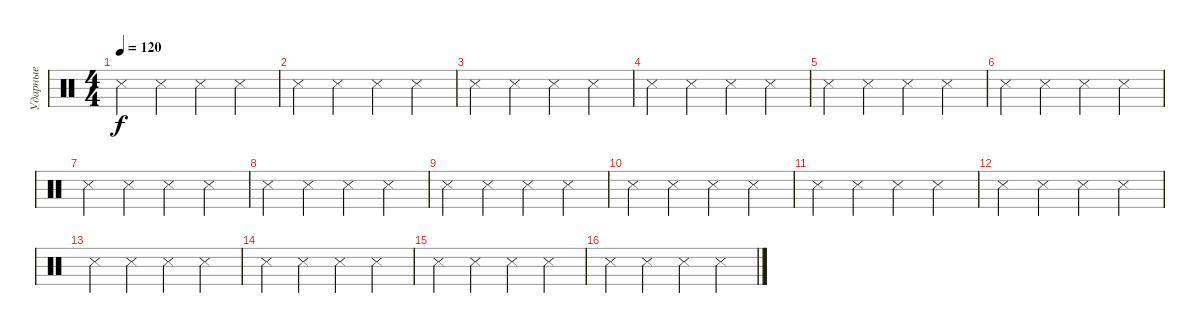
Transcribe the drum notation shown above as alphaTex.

\track ("Ударные" "Ударные") {instrument percussion}
\staff {score}
\articulation defaults
\ts (4 4)
\tempo 120
\clef neutral
\ks c "Metronome (hit)".4{dy f} "Metronome (hit)".4 "Metronome (hit)".4 "Metronome (hit)".4
|
"Metronome (hit)".4 "Metronome (hit)".4 "Metronome (hit)".4 "Metronome (hit)".4 |
"Metronome (hit)".4 "Metronome (hit)".4 "Metronome (hit)".4 "Metronome (hit)".4 |
"Metronome (hit)".4 "Metronome (hit)".4 "Metronome (hit)".4 "Metronome (hit)".4 |
"Metronome (hit)".4 "Metronome (hit)".4 "Metronome (hit)".4 "Metronome (hit)".4 |
"Metronome (hit)".4 "Metronome (hit)".4 "Metronome (hit)".4 "Metronome (hit)".4 |
"Metronome (hit)".4 "Metronome (hit)".4 "Metronome (hit)".4 "Metronome (hit)".4 |
"Metronome (hit)".4 "Metronome (hit)".4 "Metronome (hit)".4 "Metronome (hit)".4 |
"Metronome (hit)".4 "Metronome (hit)".4 "Metronome (hit)".4 "Metronome (hit)".4 |
"Metronome (hit)".4 "Metronome (hit)".4 "Metronome (hit)".4 "Metronome (hit)".4 |
"Metronome (hit)".4 "Metronome (hit)".4 "Metronome (hit)".4 "Metronome (hit)".4 |
"Metronome (hit)".4 "Metronome (hit)".4 "Metronome (hit)".4 "Metronome (hit)".4 |
"Metronome (hit)".4 "Metronome (hit)".4 "Metronome (hit)".4 "Metronome (hit)".4 |
"Metronome (hit)".4 "Metronome (hit)".4 "Metronome (hit)".4 "Metronome (hit)".4 |
"Metronome (hit)".4 "Metronome (hit)".4 "Metronome (hit)".4 "Metronome (hit)".4 |
"Metronome (hit)".4 "Metronome (hit)".4 "Metronome (hit)".4 "Metronome (hit)".4
